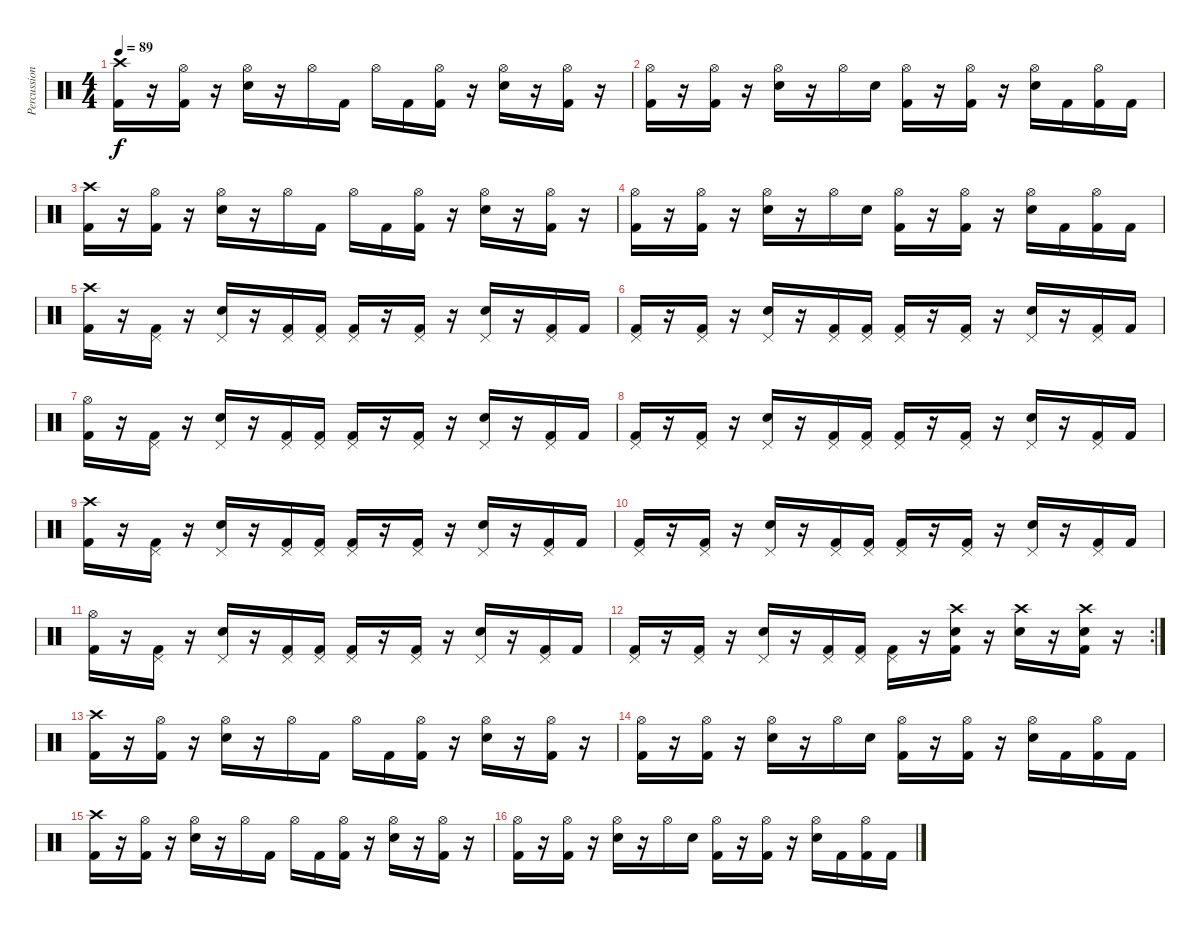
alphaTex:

\track ("Percussion" "Percussion") {instrument percussion}
\staff {score}
\articulation defaults
\ts (4 4)
\tempo 89
\clef neutral
\ks c
("Crash high (hit)" "Kick (hit) 2").16{dy f} r.16 ("Hi-Hat (open)" "Kick (hit) 2").16 r.16 ("Hi-Hat (open)" "Electric Snare (hit)").16 r.16 "Hi-Hat (open)".16 "Kick (hit) 2".16 "Hi-Hat (open)".16 "Kick (hit) 2".16 ("Hi-Hat (open)" "Kick (hit) 2").16 r.16 ("Hi-Hat (open)" "Electric Snare (hit)").16 r.16 ("Hi-Hat (open)" "Kick (hit) 2").16 r.16 |
("Hi-Hat (open)" "Kick (hit) 2").16 r.16 ("Hi-Hat (open)" "Kick (hit) 2").16 r.16 ("Hi-Hat (open)" "Electric Snare (hit)").16 r.16 "Hi-Hat (open)".16 "Electric Snare (hit)".16 ("Hi-Hat (open)" "Kick (hit) 2").16 r.16 ("Hi-Hat (open)" "Kick (hit) 2").16 r.16 ("Hi-Hat (open)" "Electric Snare (hit)").16 "Kick (hit) 2".16 ("Hi-Hat (open)" "Kick (hit) 2").16 "Kick (hit) 2".16 |
("Crash high (hit)" "Kick (hit) 2").16 r.16 ("Hi-Hat (open)" "Kick (hit) 2").16 r.16 ("Hi-Hat (open)" "Electric Snare (hit)").16 r.16 "Hi-Hat (open)".16 "Kick (hit) 2".16 "Hi-Hat (open)".16 "Kick (hit) 2".16 ("Hi-Hat (open)" "Kick (hit) 2").16 r.16 ("Hi-Hat (open)" "Electric Snare (hit)").16 r.16 ("Hi-Hat (open)" "Kick (hit) 2").16 r.16 |
("Hi-Hat (open)" "Kick (hit) 2").16 r.16 ("Hi-Hat (open)" "Kick (hit) 2").16 r.16 ("Hi-Hat (open)" "Electric Snare (hit)").16 r.16 "Hi-Hat (open)".16 "Electric Snare (hit)".16 ("Hi-Hat (open)" "Kick (hit) 2").16 r.16 ("Hi-Hat (open)" "Kick (hit) 2").16 r.16 ("Hi-Hat (open)" "Electric Snare (hit)").16 "Kick (hit) 2".16 ("Hi-Hat (open)" "Kick (hit) 2").16 "Kick (hit) 2".16 |
("Crash high (hit)" "Kick (hit) 2").16 r.16 ("Pedal Hi-Hat (hit)" "Kick (hit) 2").16 r.16 ("Pedal Hi-Hat (hit)" "Electric Snare (hit)").16 r.16 ("Pedal Hi-Hat (hit)" "Kick (hit) 2").16 ("Pedal Hi-Hat (hit)" "Kick (hit) 2").16 ("Pedal Hi-Hat (hit)" "Kick (hit) 2").16 r.16 ("Pedal Hi-Hat (hit)" "Kick (hit) 2").16 r.16 ("Pedal Hi-Hat (hit)" "Electric Snare (hit)").16 r.16 ("Pedal Hi-Hat (hit)" "Kick (hit) 2").16 "Kick (hit) 2".16 |
("Pedal Hi-Hat (hit)" "Kick (hit) 2").16 r.16 ("Pedal Hi-Hat (hit)" "Kick (hit) 2").16 r.16 ("Pedal Hi-Hat (hit)" "Electric Snare (hit)").16 r.16 ("Pedal Hi-Hat (hit)" "Kick (hit) 2").16 ("Pedal Hi-Hat (hit)" "Kick (hit) 2").16 ("Pedal Hi-Hat (hit)" "Kick (hit) 2").16 r.16 ("Pedal Hi-Hat (hit)" "Kick (hit) 2").16 r.16 ("Pedal Hi-Hat (hit)" "Electric Snare (hit)").16 r.16 ("Pedal Hi-Hat (hit)" "Kick (hit) 2").16 "Kick (hit) 2".16 |
("Hi-Hat (open)" "Kick (hit) 2").16 r.16 ("Pedal Hi-Hat (hit)" "Kick (hit) 2").16 r.16 ("Pedal Hi-Hat (hit)" "Electric Snare (hit)").16 r.16 ("Pedal Hi-Hat (hit)" "Kick (hit) 2").16 ("Pedal Hi-Hat (hit)" "Kick (hit) 2").16 ("Pedal Hi-Hat (hit)" "Kick (hit) 2").16 r.16 ("Pedal Hi-Hat (hit)" "Kick (hit) 2").16 r.16 ("Pedal Hi-Hat (hit)" "Electric Snare (hit)").16 r.16 ("Pedal Hi-Hat (hit)" "Kick (hit) 2").16 "Kick (hit) 2".16 |
("Pedal Hi-Hat (hit)" "Kick (hit) 2").16 r.16 ("Pedal Hi-Hat (hit)" "Kick (hit) 2").16 r.16 ("Pedal Hi-Hat (hit)" "Electric Snare (hit)").16 r.16 ("Pedal Hi-Hat (hit)" "Kick (hit) 2").16 ("Pedal Hi-Hat (hit)" "Kick (hit) 2").16 ("Pedal Hi-Hat (hit)" "Kick (hit) 2").16 r.16 ("Pedal Hi-Hat (hit)" "Kick (hit) 2").16 r.16 ("Pedal Hi-Hat (hit)" "Electric Snare (hit)").16 r.16 ("Pedal Hi-Hat (hit)" "Kick (hit) 2").16 "Kick (hit) 2".16 |
("Crash high (hit)" "Kick (hit) 2").16 r.16 ("Pedal Hi-Hat (hit)" "Kick (hit) 2").16 r.16 ("Pedal Hi-Hat (hit)" "Electric Snare (hit)").16 r.16 ("Pedal Hi-Hat (hit)" "Kick (hit) 2").16 ("Pedal Hi-Hat (hit)" "Kick (hit) 2").16 ("Pedal Hi-Hat (hit)" "Kick (hit) 2").16 r.16 ("Pedal Hi-Hat (hit)" "Kick (hit) 2").16 r.16 ("Pedal Hi-Hat (hit)" "Electric Snare (hit)").16 r.16 ("Pedal Hi-Hat (hit)" "Kick (hit) 2").16 "Kick (hit) 2".16 |
("Pedal Hi-Hat (hit)" "Kick (hit) 2").16 r.16 ("Pedal Hi-Hat (hit)" "Kick (hit) 2").16 r.16 ("Pedal Hi-Hat (hit)" "Electric Snare (hit)").16 r.16 ("Pedal Hi-Hat (hit)" "Kick (hit) 2").16 ("Pedal Hi-Hat (hit)" "Kick (hit) 2").16 ("Pedal Hi-Hat (hit)" "Kick (hit) 2").16 r.16 ("Pedal Hi-Hat (hit)" "Kick (hit) 2").16 r.16 ("Pedal Hi-Hat (hit)" "Electric Snare (hit)").16 r.16 ("Pedal Hi-Hat (hit)" "Kick (hit) 2").16 "Kick (hit) 2".16 |
("Hi-Hat (open)" "Kick (hit) 2").16 r.16 ("Pedal Hi-Hat (hit)" "Kick (hit) 2").16 r.16 ("Pedal Hi-Hat (hit)" "Electric Snare (hit)").16 r.16 ("Pedal Hi-Hat (hit)" "Kick (hit) 2").16 ("Pedal Hi-Hat (hit)" "Kick (hit) 2").16 ("Pedal Hi-Hat (hit)" "Kick (hit) 2").16 r.16 ("Pedal Hi-Hat (hit)" "Kick (hit) 2").16 r.16 ("Pedal Hi-Hat (hit)" "Electric Snare (hit)").16 r.16 ("Pedal Hi-Hat (hit)" "Kick (hit) 2").16 "Kick (hit) 2".16 |
\rc 2
("Pedal Hi-Hat (hit)" "Kick (hit) 2").16 r.16 ("Pedal Hi-Hat (hit)" "Kick (hit) 2").16 r.16 ("Pedal Hi-Hat (hit)" "Electric Snare (hit)").16 r.16 ("Pedal Hi-Hat (hit)" "Kick (hit) 2").16 ("Pedal Hi-Hat (hit)" "Kick (hit) 2").16 ("Pedal Hi-Hat (hit)" "Kick (hit) 2").16 r.16 ("Crash high (hit)" "Electric Snare (hit)" "Kick (hit) 2").16 r.16 ("Crash high (hit)" "Electric Snare (hit)").16 r.16 ("Crash high (hit)" "Electric Snare (hit)" "Kick (hit) 2").16 r.16 |
("Crash high (hit)" "Kick (hit) 2").16 r.16 ("Hi-Hat (open)" "Kick (hit) 2").16 r.16 ("Hi-Hat (open)" "Electric Snare (hit)").16 r.16 "Hi-Hat (open)".16 "Kick (hit) 2".16 "Hi-Hat (open)".16 "Kick (hit) 2".16 ("Hi-Hat (open)" "Kick (hit) 2").16 r.16 ("Hi-Hat (open)" "Electric Snare (hit)").16 r.16 ("Hi-Hat (open)" "Kick (hit) 2").16 r.16 |
("Hi-Hat (open)" "Kick (hit) 2").16 r.16 ("Hi-Hat (open)" "Kick (hit) 2").16 r.16 ("Hi-Hat (open)" "Electric Snare (hit)").16 r.16 "Hi-Hat (open)".16 "Electric Snare (hit)".16 ("Hi-Hat (open)" "Kick (hit) 2").16 r.16 ("Hi-Hat (open)" "Kick (hit) 2").16 r.16 ("Hi-Hat (open)" "Electric Snare (hit)").16 "Kick (hit) 2".16 ("Hi-Hat (open)" "Kick (hit) 2").16 "Kick (hit) 2".16 |
("Crash high (hit)" "Kick (hit) 2").16 r.16 ("Hi-Hat (open)" "Kick (hit) 2").16 r.16 ("Hi-Hat (open)" "Electric Snare (hit)").16 r.16 "Hi-Hat (open)".16 "Kick (hit) 2".16 "Hi-Hat (open)".16 "Kick (hit) 2".16 ("Hi-Hat (open)" "Kick (hit) 2").16 r.16 ("Hi-Hat (open)" "Electric Snare (hit)").16 r.16 ("Hi-Hat (open)" "Kick (hit) 2").16 r.16 |
("Hi-Hat (open)" "Kick (hit) 2").16 r.16 ("Hi-Hat (open)" "Kick (hit) 2").16 r.16 ("Hi-Hat (open)" "Electric Snare (hit)").16 r.16 "Hi-Hat (open)".16 "Electric Snare (hit)".16 ("Hi-Hat (open)" "Kick (hit) 2").16 r.16 ("Hi-Hat (open)" "Kick (hit) 2").16 r.16 ("Hi-Hat (open)" "Electric Snare (hit)").16 "Kick (hit) 2".16 ("Hi-Hat (open)" "Kick (hit) 2").16 "Kick (hit) 2".16
